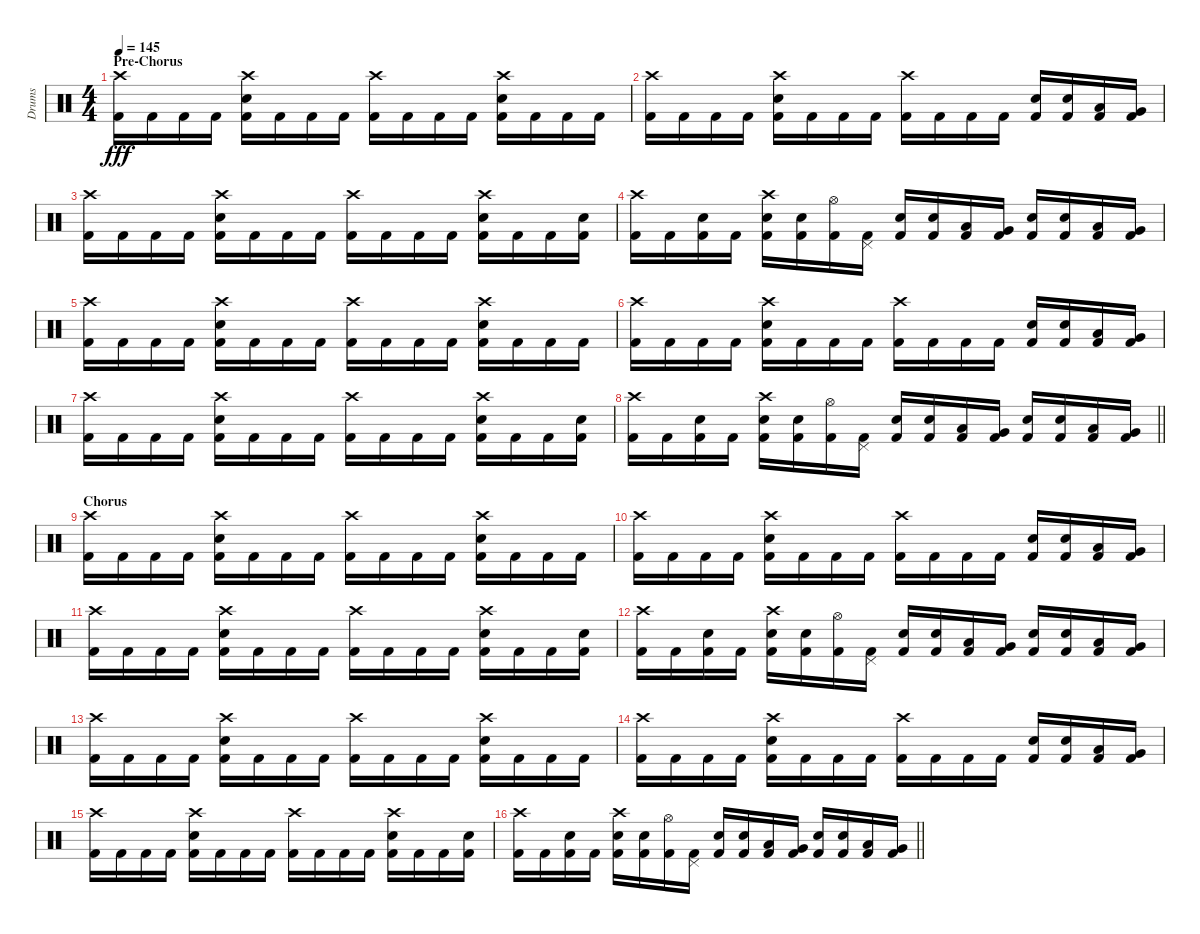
\track ("Drums" "Drums") {instrument percussion}
\staff {score}
\articulation defaults
\ts (4 4)
\section ("" "Pre-Chorus")
\tempo 145
\clef neutral
\ks c
("Crash high (hit)" "Kick (hit) 2").16{dy fff} "Kick (hit) 2".16 "Kick (hit) 2".16 "Kick (hit) 2".16 ("Crash high (hit)" "Kick (hit) 2" "Snare (hit) 2").16 "Kick (hit) 2".16 "Kick (hit) 2".16 "Kick (hit) 2".16 ("Crash high (hit)" "Kick (hit) 2").16 "Kick (hit) 2".16 "Kick (hit) 2".16 "Kick (hit) 2".16 ("Crash high (hit)" "Kick (hit) 2" "Snare (hit) 2").16 "Kick (hit) 2".16 "Kick (hit) 2".16 "Kick (hit) 2".16 |
("Crash high (hit)" "Kick (hit) 2").16 "Kick (hit) 2".16 "Kick (hit) 2".16 "Kick (hit) 2".16 ("Crash high (hit)" "Kick (hit) 2" "Snare (hit) 2").16 "Kick (hit) 2".16 "Kick (hit) 2".16 "Kick (hit) 2".16 ("Crash high (hit)" "Kick (hit) 2").16 "Kick (hit) 2".16 "Kick (hit) 2".16 "Kick (hit) 2".16 ("Kick (hit) 2" "Snare (hit) 2").16 ("Kick (hit) 2" "Snare (hit) 2").16 ("Kick (hit) 2" "Low Tom (hit)").16 ("Kick (hit) 2" "Very Low Tom (hit)").16 |
("Crash high (hit)" "Kick (hit) 2").16 "Kick (hit) 2".16 "Kick (hit) 2".16 "Kick (hit) 2".16 ("Crash high (hit)" "Kick (hit) 2" "Snare (hit) 2").16 "Kick (hit) 2".16 "Kick (hit) 2".16 "Kick (hit) 2".16 ("Crash high (hit)" "Kick (hit) 2").16 "Kick (hit) 2".16 "Kick (hit) 2".16 "Kick (hit) 2".16 ("Crash high (hit)" "Kick (hit) 2" "Snare (hit) 2").16 "Kick (hit) 2".16 "Kick (hit) 2".16 ("Kick (hit) 2" "Snare (hit) 2").16 |
("Crash high (hit)" "Kick (hit) 2").16 "Kick (hit) 2".16 ("Kick (hit) 2" "Snare (hit) 2").16 "Kick (hit) 2".16 ("Crash high (hit)" "Kick (hit) 2" "Snare (hit) 2").16 ("Kick (hit) 2" "Snare (hit) 2").16 ("Hi-Hat (open)" "Kick (hit) 2").16 ("Pedal Hi-Hat (hit)" "Kick (hit) 2").16 ("Kick (hit) 2" "Snare (hit) 2").16 ("Kick (hit) 2" "Snare (hit) 2").16 ("Kick (hit) 2" "Low Tom (hit)").16 ("Kick (hit) 2" "Very Low Tom (hit)").16 ("Kick (hit) 2" "Snare (hit) 2").16 ("Kick (hit) 2" "Snare (hit) 2").16 ("Kick (hit) 2" "Low Tom (hit)").16 ("Kick (hit) 2" "Very Low Tom (hit)").16 |
("Crash high (hit)" "Kick (hit) 2").16 "Kick (hit) 2".16 "Kick (hit) 2".16 "Kick (hit) 2".16 ("Crash high (hit)" "Kick (hit) 2" "Snare (hit) 2").16 "Kick (hit) 2".16 "Kick (hit) 2".16 "Kick (hit) 2".16 ("Crash high (hit)" "Kick (hit) 2").16 "Kick (hit) 2".16 "Kick (hit) 2".16 "Kick (hit) 2".16 ("Crash high (hit)" "Kick (hit) 2" "Snare (hit) 2").16 "Kick (hit) 2".16 "Kick (hit) 2".16 "Kick (hit) 2".16 |
("Crash high (hit)" "Kick (hit) 2").16 "Kick (hit) 2".16 "Kick (hit) 2".16 "Kick (hit) 2".16 ("Crash high (hit)" "Kick (hit) 2" "Snare (hit) 2").16 "Kick (hit) 2".16 "Kick (hit) 2".16 "Kick (hit) 2".16 ("Crash high (hit)" "Kick (hit) 2").16 "Kick (hit) 2".16 "Kick (hit) 2".16 "Kick (hit) 2".16 ("Kick (hit) 2" "Snare (hit) 2").16 ("Kick (hit) 2" "Snare (hit) 2").16 ("Kick (hit) 2" "Low Tom (hit)").16 ("Kick (hit) 2" "Very Low Tom (hit)").16 |
("Crash high (hit)" "Kick (hit) 2").16 "Kick (hit) 2".16 "Kick (hit) 2".16 "Kick (hit) 2".16 ("Crash high (hit)" "Kick (hit) 2" "Snare (hit) 2").16 "Kick (hit) 2".16 "Kick (hit) 2".16 "Kick (hit) 2".16 ("Crash high (hit)" "Kick (hit) 2").16 "Kick (hit) 2".16 "Kick (hit) 2".16 "Kick (hit) 2".16 ("Crash high (hit)" "Kick (hit) 2" "Snare (hit) 2").16 "Kick (hit) 2".16 "Kick (hit) 2".16 ("Kick (hit) 2" "Snare (hit) 2").16 |
\barLineRight lightlight
("Crash high (hit)" "Kick (hit) 2").16 "Kick (hit) 2".16 ("Kick (hit) 2" "Snare (hit) 2").16 "Kick (hit) 2".16 ("Crash high (hit)" "Kick (hit) 2" "Snare (hit) 2").16 ("Kick (hit) 2" "Snare (hit) 2").16 ("Hi-Hat (open)" "Kick (hit) 2").16 ("Pedal Hi-Hat (hit)" "Kick (hit) 2").16 ("Kick (hit) 2" "Snare (hit) 2").16 ("Kick (hit) 2" "Snare (hit) 2").16 ("Kick (hit) 2" "Low Tom (hit)").16 ("Kick (hit) 2" "Very Low Tom (hit)").16 ("Kick (hit) 2" "Snare (hit) 2").16 ("Kick (hit) 2" "Snare (hit) 2").16 ("Kick (hit) 2" "Low Tom (hit)").16 ("Kick (hit) 2" "Very Low Tom (hit)").16 |
\section ("" "Chorus")
("Crash high (hit)" "Kick (hit) 2").16 "Kick (hit) 2".16 "Kick (hit) 2".16 "Kick (hit) 2".16 ("Crash high (hit)" "Kick (hit) 2" "Snare (hit) 2").16 "Kick (hit) 2".16 "Kick (hit) 2".16 "Kick (hit) 2".16 ("Crash high (hit)" "Kick (hit) 2").16 "Kick (hit) 2".16 "Kick (hit) 2".16 "Kick (hit) 2".16 ("Crash high (hit)" "Kick (hit) 2" "Snare (hit) 2").16 "Kick (hit) 2".16 "Kick (hit) 2".16 "Kick (hit) 2".16 |
("Crash high (hit)" "Kick (hit) 2").16 "Kick (hit) 2".16 "Kick (hit) 2".16 "Kick (hit) 2".16 ("Crash high (hit)" "Kick (hit) 2" "Snare (hit) 2").16 "Kick (hit) 2".16 "Kick (hit) 2".16 "Kick (hit) 2".16 ("Crash high (hit)" "Kick (hit) 2").16 "Kick (hit) 2".16 "Kick (hit) 2".16 "Kick (hit) 2".16 ("Kick (hit) 2" "Snare (hit) 2").16 ("Kick (hit) 2" "Snare (hit) 2").16 ("Kick (hit) 2" "Low Tom (hit)").16 ("Kick (hit) 2" "Very Low Tom (hit)").16 |
("Crash high (hit)" "Kick (hit) 2").16 "Kick (hit) 2".16 "Kick (hit) 2".16 "Kick (hit) 2".16 ("Crash high (hit)" "Kick (hit) 2" "Snare (hit) 2").16 "Kick (hit) 2".16 "Kick (hit) 2".16 "Kick (hit) 2".16 ("Crash high (hit)" "Kick (hit) 2").16 "Kick (hit) 2".16 "Kick (hit) 2".16 "Kick (hit) 2".16 ("Crash high (hit)" "Kick (hit) 2" "Snare (hit) 2").16 "Kick (hit) 2".16 "Kick (hit) 2".16 ("Kick (hit) 2" "Snare (hit) 2").16 |
("Crash high (hit)" "Kick (hit) 2").16 "Kick (hit) 2".16 ("Kick (hit) 2" "Snare (hit) 2").16 "Kick (hit) 2".16 ("Crash high (hit)" "Kick (hit) 2" "Snare (hit) 2").16 ("Kick (hit) 2" "Snare (hit) 2").16 ("Hi-Hat (open)" "Kick (hit) 2").16 ("Pedal Hi-Hat (hit)" "Kick (hit) 2").16 ("Kick (hit) 2" "Snare (hit) 2").16 ("Kick (hit) 2" "Snare (hit) 2").16 ("Kick (hit) 2" "Low Tom (hit)").16 ("Kick (hit) 2" "Very Low Tom (hit)").16 ("Kick (hit) 2" "Snare (hit) 2").16 ("Kick (hit) 2" "Snare (hit) 2").16 ("Kick (hit) 2" "Low Tom (hit)").16 ("Kick (hit) 2" "Very Low Tom (hit)").16 |
("Crash high (hit)" "Kick (hit) 2").16 "Kick (hit) 2".16 "Kick (hit) 2".16 "Kick (hit) 2".16 ("Crash high (hit)" "Kick (hit) 2" "Snare (hit) 2").16 "Kick (hit) 2".16 "Kick (hit) 2".16 "Kick (hit) 2".16 ("Crash high (hit)" "Kick (hit) 2").16 "Kick (hit) 2".16 "Kick (hit) 2".16 "Kick (hit) 2".16 ("Crash high (hit)" "Kick (hit) 2" "Snare (hit) 2").16 "Kick (hit) 2".16 "Kick (hit) 2".16 "Kick (hit) 2".16 |
("Crash high (hit)" "Kick (hit) 2").16 "Kick (hit) 2".16 "Kick (hit) 2".16 "Kick (hit) 2".16 ("Crash high (hit)" "Kick (hit) 2" "Snare (hit) 2").16 "Kick (hit) 2".16 "Kick (hit) 2".16 "Kick (hit) 2".16 ("Crash high (hit)" "Kick (hit) 2").16 "Kick (hit) 2".16 "Kick (hit) 2".16 "Kick (hit) 2".16 ("Kick (hit) 2" "Snare (hit) 2").16 ("Kick (hit) 2" "Snare (hit) 2").16 ("Kick (hit) 2" "Low Tom (hit)").16 ("Kick (hit) 2" "Very Low Tom (hit)").16 |
("Crash high (hit)" "Kick (hit) 2").16 "Kick (hit) 2".16 "Kick (hit) 2".16 "Kick (hit) 2".16 ("Crash high (hit)" "Kick (hit) 2" "Snare (hit) 2").16 "Kick (hit) 2".16 "Kick (hit) 2".16 "Kick (hit) 2".16 ("Crash high (hit)" "Kick (hit) 2").16 "Kick (hit) 2".16 "Kick (hit) 2".16 "Kick (hit) 2".16 ("Crash high (hit)" "Kick (hit) 2" "Snare (hit) 2").16 "Kick (hit) 2".16 "Kick (hit) 2".16 ("Kick (hit) 2" "Snare (hit) 2").16 |
\barLineRight lightlight
("Crash high (hit)" "Kick (hit) 2").16 "Kick (hit) 2".16 ("Kick (hit) 2" "Snare (hit) 2").16 "Kick (hit) 2".16 ("Crash high (hit)" "Kick (hit) 2" "Snare (hit) 2").16 ("Kick (hit) 2" "Snare (hit) 2").16 ("Hi-Hat (open)" "Kick (hit) 2").16 ("Pedal Hi-Hat (hit)" "Kick (hit) 2").16 ("Kick (hit) 2" "Snare (hit) 2").16 ("Kick (hit) 2" "Snare (hit) 2").16 ("Kick (hit) 2" "Low Tom (hit)").16 ("Kick (hit) 2" "Very Low Tom (hit)").16 ("Kick (hit) 2" "Snare (hit) 2").16 ("Kick (hit) 2" "Snare (hit) 2").16 ("Kick (hit) 2" "Low Tom (hit)").16 ("Kick (hit) 2" "Very Low Tom (hit)").16
